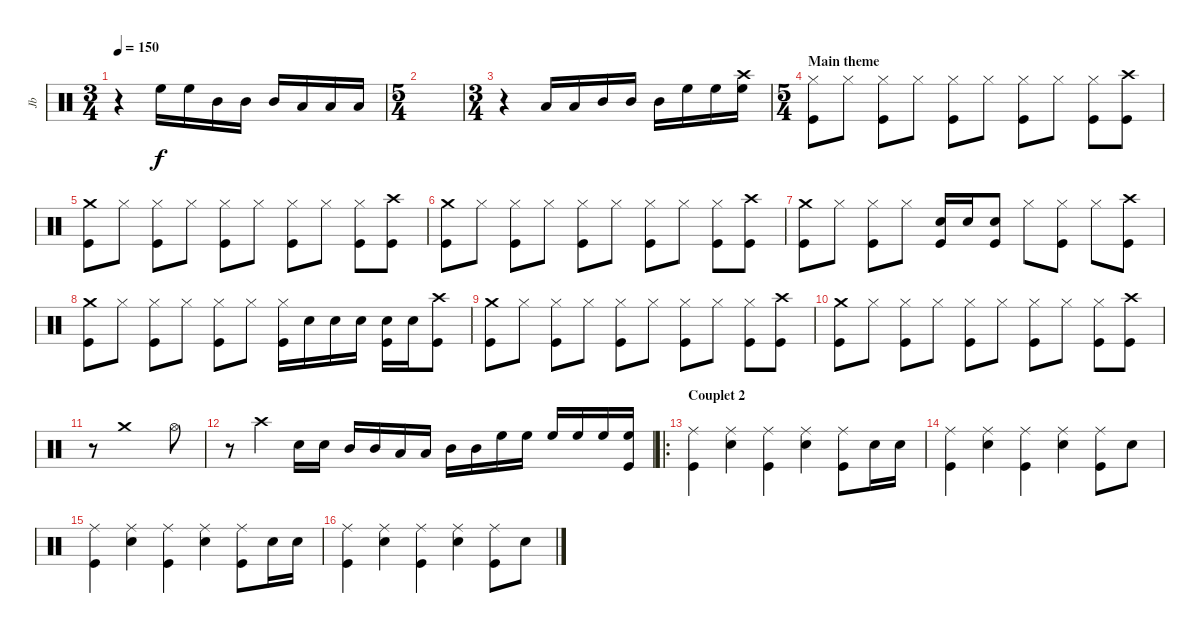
\track ("Jb" "Jb") {instrument percussion}
\staff {score}
\articulation defaults
\ts (3 4)
\tempo 150
\clef neutral
\ks c
r.4{dy f} "High Floor Tom (hit)".16 "High Floor Tom (hit)".16 "Mid Tom (hit)".16 "Mid Tom (hit)".16 "Mid Tom (hit)".16 "Low Floor Tom (hit)".16 "Low Floor Tom (hit)".16 "Low Floor Tom (hit)".16 |
\ts (5 4)
|
\ts (3 4)
r.4 "Low Floor Tom (hit)".16 "Low Floor Tom (hit)".16 "Mid Tom (hit)".16 "Mid Tom (hit)".16 "Mid Tom (hit)".16 "High Floor Tom (hit)".16 "High Floor Tom (hit)".16 ("Crash high (hit)" "High Floor Tom (hit)").16 |
\ts (5 4)
\section ("" "Main theme")
("Hi-Hat (closed)" "Kick (hit)").8 "Hi-Hat (closed)".8 ("Hi-Hat (closed)" "Kick (hit)").8 "Hi-Hat (closed)".8 ("Hi-Hat (closed)" "Kick (hit)").8 "Hi-Hat (closed)".8 ("Hi-Hat (closed)" "Kick (hit)").8 "Hi-Hat (closed)".8 ("Hi-Hat (closed)" "Kick (hit)").8 ("Crash high (hit)" "Kick (hit)").8 |
("Crash medium (hit)" "Kick (hit)").8 "Hi-Hat (closed)".8 ("Hi-Hat (closed)" "Kick (hit)").8 "Hi-Hat (closed)".8 ("Hi-Hat (closed)" "Kick (hit)").8 "Hi-Hat (closed)".8 ("Hi-Hat (closed)" "Kick (hit)").8 "Hi-Hat (closed)".8 ("Hi-Hat (closed)" "Kick (hit)").8 ("Crash high (hit)" "Kick (hit)").8 |
("Crash medium (hit)" "Kick (hit)").8 "Hi-Hat (closed)".8 ("Hi-Hat (closed)" "Kick (hit)").8 "Hi-Hat (closed)".8 ("Hi-Hat (closed)" "Kick (hit)").8 "Hi-Hat (closed)".8 ("Hi-Hat (closed)" "Kick (hit)").8 "Hi-Hat (closed)".8 ("Hi-Hat (closed)" "Kick (hit)").8 ("Crash high (hit)" "Kick (hit)").8 |
("Crash medium (hit)" "Kick (hit)").8 "Hi-Hat (closed)".8 ("Hi-Hat (closed)" "Kick (hit)").8 "Hi-Hat (closed)".8 ("Snare (hit) 2" "Kick (hit)").16 "Snare (hit) 2".16 ("Snare (hit) 2" "Kick (hit)").8 "Hi-Hat (closed)".8 ("Hi-Hat (closed)" "Kick (hit)").8 "Hi-Hat (closed)".8 ("Crash high (hit)" "Kick (hit)").8 |
("Crash medium (hit)" "Kick (hit)").8 "Hi-Hat (closed)".8 ("Hi-Hat (closed)" "Kick (hit)").8 "Hi-Hat (closed)".8 ("Hi-Hat (closed)" "Kick (hit)").8 "Hi-Hat (closed)".8 ("Hi-Hat (closed)" "Kick (hit)").16 "Snare (hit) 2".16 "Snare (hit) 2".16 "Snare (hit) 2".16 ("Snare (hit) 2" "Kick (hit)").16 "Snare (hit) 2".16 ("Crash high (hit)" "Kick (hit)").8 |
("Crash medium (hit)" "Kick (hit)").8 "Hi-Hat (closed)".8 ("Hi-Hat (closed)" "Kick (hit)").8 "Hi-Hat (closed)".8 ("Hi-Hat (closed)" "Kick (hit)").8 "Hi-Hat (closed)".8 ("Hi-Hat (closed)" "Kick (hit)").8 "Hi-Hat (closed)".8 ("Hi-Hat (closed)" "Kick (hit)").8 ("Crash high (hit)" "Kick (hit)").8 |
("Crash medium (hit)" "Kick (hit)").8 "Hi-Hat (closed)".8 ("Hi-Hat (closed)" "Kick (hit)").8 "Hi-Hat (closed)".8 ("Hi-Hat (closed)" "Kick (hit)").8 "Hi-Hat (closed)".8 ("Hi-Hat (closed)" "Kick (hit)").8 "Hi-Hat (closed)".8 ("Hi-Hat (closed)" "Kick (hit)").8 ("Crash high (hit)" "Kick (hit)").8 |
r.8 "Crash medium (hit)".1 "Hi-Hat (open)".8 |
r.8 "Crash high (hit)".4 "Electric Snare (hit)".16 "Electric Snare (hit)".16 "Mid Tom (hit)".16 "Mid Tom (hit)".16 "Low Floor Tom (hit)".16 "Low Floor Tom (hit)".16 "Mid Tom (hit)".16 "Mid Tom (hit)".16 "High Floor Tom (hit)".16 "High Floor Tom (hit)".16 "High Floor Tom (hit)".16 "High Floor Tom (hit)".16 "High Floor Tom (hit)".16 ("High Floor Tom (hit)" "Kick (hit)").16 |
\ro
\section ("" "Couplet 2")
("Ride (middle)" "Kick (hit)").4 ("Ride (middle)" "Electric Snare (hit)").4 ("Ride (middle)" "Kick (hit)").4 ("Ride (middle)" "Electric Snare (hit)").4 ("Ride (middle)" "Kick (hit)").8 "Electric Snare (hit)".16 "Electric Snare (hit)".16 |
("Ride (middle)" "Kick (hit)").4 ("Ride (middle)" "Electric Snare (hit)").4 ("Ride (middle)" "Kick (hit)").4 ("Ride (middle)" "Electric Snare (hit)").4 ("Ride (middle)" "Kick (hit)").8 "Electric Snare (hit)".8 |
("Ride (middle)" "Kick (hit)").4 ("Ride (middle)" "Electric Snare (hit)").4 ("Ride (middle)" "Kick (hit)").4 ("Ride (middle)" "Electric Snare (hit)").4 ("Ride (middle)" "Kick (hit)").8 "Electric Snare (hit)".16 "Electric Snare (hit)".16 |
("Ride (middle)" "Kick (hit)").4 ("Ride (middle)" "Electric Snare (hit)").4 ("Ride (middle)" "Kick (hit)").4 ("Ride (middle)" "Electric Snare (hit)").4 ("Ride (middle)" "Kick (hit)").8 "Electric Snare (hit)".8
